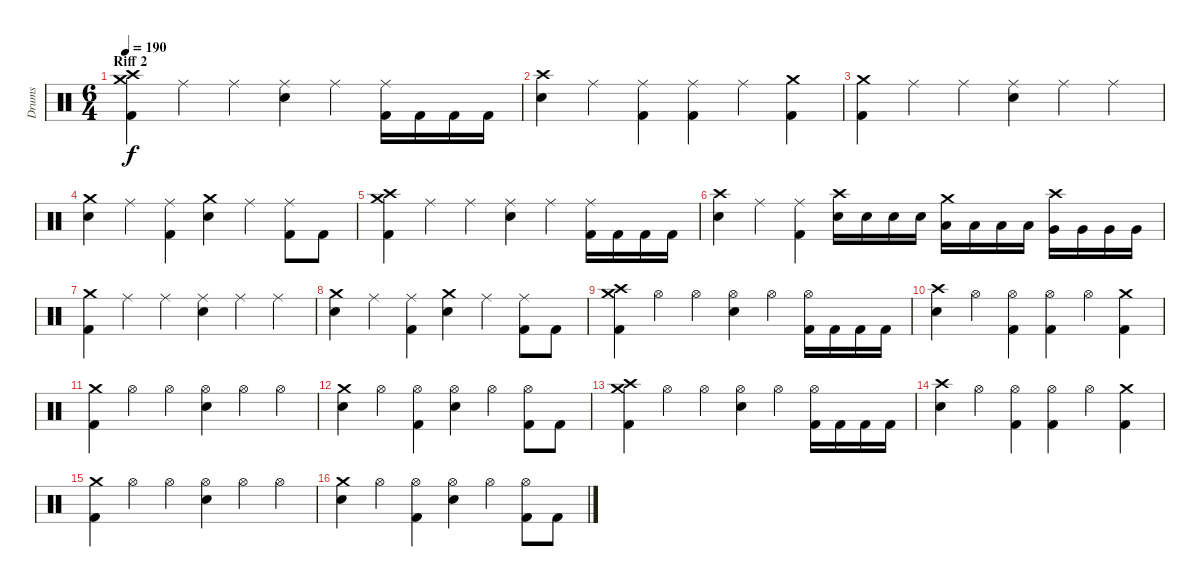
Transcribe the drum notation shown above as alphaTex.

\track ("Drums" "Drums") {instrument percussion}
\staff {score}
\articulation defaults
\ts (6 4)
\section ("" "Riff 2")
\tempo 190
\clef neutral
\ks c
("Crash medium (hit)" "Crash high (hit)" "Kick (hit) 2").4{dy f} "Ride (middle)".4 "Ride (middle)".4 ("Ride (middle)" "Electric Snare (hit)").4 "Ride (middle)".4 ("Ride (middle)" "Kick (hit) 2").16 "Kick (hit) 2".16 "Kick (hit) 2".16 "Kick (hit) 2".16 |
("Crash high (hit)" "Electric Snare (hit)").4 "Ride (middle)".4 ("Ride (middle)" "Kick (hit) 2").4 ("Ride (middle)" "Kick (hit) 2").4 "Ride (middle)".4 ("Crash medium (hit)" "Kick (hit) 2").4 |
("Crash medium (hit)" "Kick (hit) 2").4 "Ride (middle)".4 "Ride (middle)".4 ("Ride (middle)" "Electric Snare (hit)").4 "Ride (middle)".4 "Ride (middle)".4 |
("Crash medium (hit)" "Electric Snare (hit)").4 "Ride (middle)".4 ("Ride (middle)" "Kick (hit) 2").4 ("Crash medium (hit)" "Electric Snare (hit)").4 "Ride (middle)".4 ("Ride (middle)" "Kick (hit) 2").8 "Kick (hit) 2".8 |
("Crash medium (hit)" "Crash high (hit)" "Kick (hit) 2").4 "Ride (middle)".4 "Ride (middle)".4 ("Ride (middle)" "Electric Snare (hit)").4 "Ride (middle)".4 ("Ride (middle)" "Kick (hit) 2").16 "Kick (hit) 2".16 "Kick (hit) 2".16 "Kick (hit) 2".16 |
("Crash high (hit)" "Electric Snare (hit)").4 "Ride (middle)".4 ("Ride (middle)" "Kick (hit) 2").4 ("Crash high (hit)" "Electric Snare (hit)").16 "Electric Snare (hit)".16 "Electric Snare (hit)".16 "Electric Snare (hit)".16 ("Crash medium (hit)" "Low Tom (hit)").16 "Low Tom (hit)".16 "Low Tom (hit)".16 "Low Tom (hit)".16 ("Crash high (hit)" "Very Low Tom (hit)").16 "Very Low Tom (hit)".16 "Very Low Tom (hit)".16 "Very Low Tom (hit)".16 |
("Crash medium (hit)" "Kick (hit) 2").4 "Ride (middle)".4 "Ride (middle)".4 ("Ride (middle)" "Electric Snare (hit)").4 "Ride (middle)".4 "Ride (middle)".4 |
("Crash medium (hit)" "Electric Snare (hit)").4 "Ride (middle)".4 ("Ride (middle)" "Kick (hit) 2").4 ("Crash medium (hit)" "Electric Snare (hit)").4 "Ride (middle)".4 ("Ride (middle)" "Kick (hit) 2").8 "Kick (hit) 2".8 |
("Crash medium (hit)" "Crash high (hit)" "Kick (hit) 2").4 "Hi-Hat (open)".4 "Hi-Hat (open)".4 ("Hi-Hat (open)" "Electric Snare (hit)").4 "Hi-Hat (open)".4 ("Hi-Hat (open)" "Kick (hit) 2").16 "Kick (hit) 2".16 "Kick (hit) 2".16 "Kick (hit) 2".16 |
("Crash high (hit)" "Electric Snare (hit)").4 "Hi-Hat (open)".4 ("Hi-Hat (open)" "Kick (hit) 2").4 ("Hi-Hat (open)" "Kick (hit) 2").4 "Hi-Hat (open)".4 ("Crash medium (hit)" "Kick (hit) 2").4 |
("Crash medium (hit)" "Kick (hit) 2").4 "Hi-Hat (open)".4 "Hi-Hat (open)".4 ("Hi-Hat (open)" "Electric Snare (hit)").4 "Hi-Hat (open)".4 "Hi-Hat (open)".4 |
("Crash medium (hit)" "Electric Snare (hit)").4 "Hi-Hat (open)".4 ("Hi-Hat (open)" "Kick (hit) 2").4 ("Hi-Hat (open)" "Electric Snare (hit)").4 "Hi-Hat (open)".4 ("Hi-Hat (open)" "Kick (hit) 2").8 "Kick (hit) 2".8 |
("Crash medium (hit)" "Crash high (hit)" "Kick (hit) 2").4 "Hi-Hat (open)".4 "Hi-Hat (open)".4 ("Hi-Hat (open)" "Electric Snare (hit)").4 "Hi-Hat (open)".4 ("Hi-Hat (open)" "Kick (hit) 2").16 "Kick (hit) 2".16 "Kick (hit) 2".16 "Kick (hit) 2".16 |
("Crash high (hit)" "Electric Snare (hit)").4 "Hi-Hat (open)".4 ("Hi-Hat (open)" "Kick (hit) 2").4 ("Hi-Hat (open)" "Kick (hit) 2").4 "Hi-Hat (open)".4 ("Crash medium (hit)" "Kick (hit) 2").4 |
("Crash medium (hit)" "Kick (hit) 2").4 "Hi-Hat (open)".4 "Hi-Hat (open)".4 ("Hi-Hat (open)" "Electric Snare (hit)").4 "Hi-Hat (open)".4 "Hi-Hat (open)".4 |
("Crash medium (hit)" "Electric Snare (hit)").4 "Hi-Hat (open)".4 ("Hi-Hat (open)" "Kick (hit) 2").4 ("Hi-Hat (open)" "Electric Snare (hit)").4 "Hi-Hat (open)".4 ("Hi-Hat (open)" "Kick (hit) 2").8 "Kick (hit) 2".8
